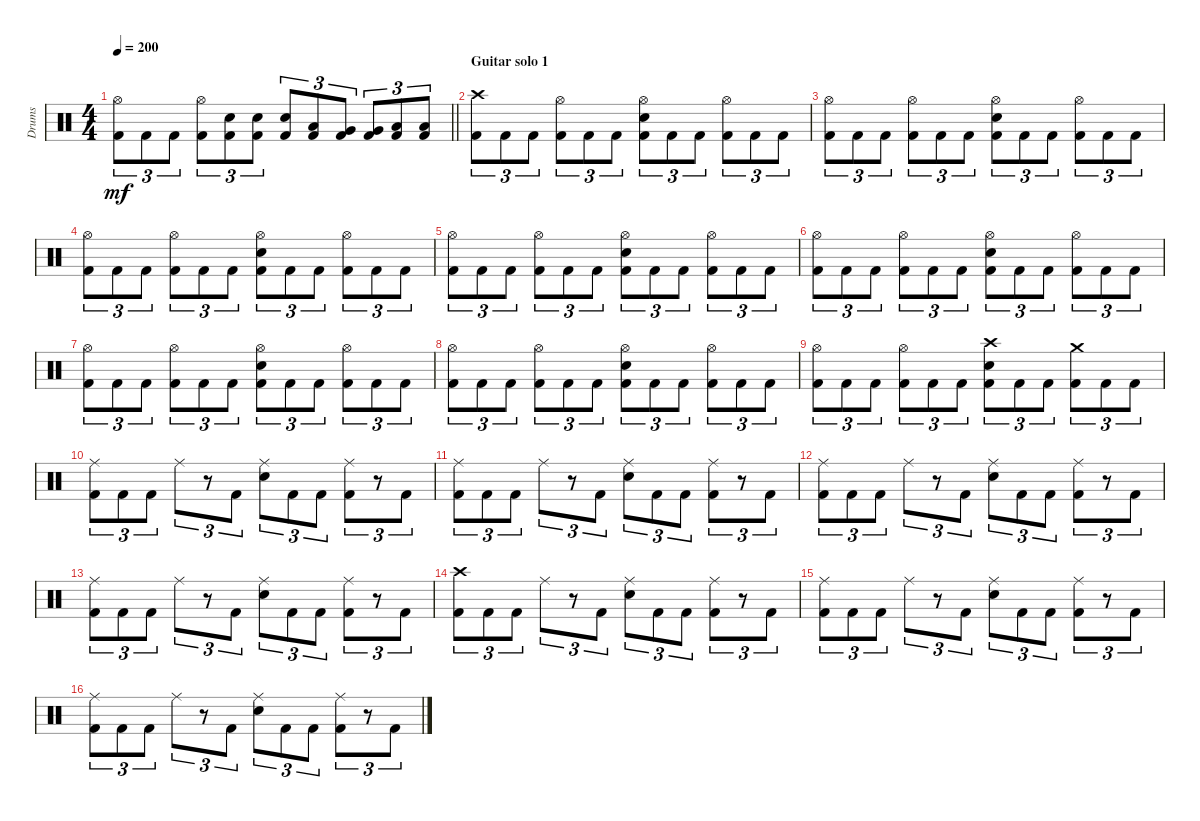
\track ("Drums" "Drums") {instrument percussion}
\staff {score}
\articulation defaults
\ts (4 4)
\tempo 200
\clef neutral
\barLineRight lightlight
\ks c
("Hi-Hat (open)" "Kick (hit) 2").8{tu (3 2) dy mf} "Kick (hit) 2".8{tu (3 2)} "Kick (hit) 2".8{tu (3 2)} ("Hi-Hat (open)" "Kick (hit) 2").8{tu (3 2)} ("Electric Snare (hit)" "Kick (hit) 2").8{tu (3 2)} ("Electric Snare (hit)" "Kick (hit) 2").8{tu (3 2)} ("Electric Snare (hit)" "Kick (hit) 2").8{tu (3 2)} ("Low Tom (hit)" "Kick (hit) 2").8{tu (3 2)} ("Very Low Tom (hit)" "Kick (hit) 2").8{tu (3 2)} ("Very Low Tom (hit)" "Kick (hit) 2").8{tu (3 2)} ("Low Floor Tom (hit)" "Kick (hit) 2").8{tu (3 2)} ("Low Floor Tom (hit)" "Kick (hit) 2").8{tu (3 2)} |
\section ("" "Guitar solo 1")
("Crash high (hit)" "Kick (hit) 2").8{tu (3 2)} "Kick (hit) 2".8{tu (3 2)} "Kick (hit) 2".8{tu (3 2)} ("Hi-Hat (open)" "Kick (hit) 2").8{tu (3 2)} "Kick (hit) 2".8{tu (3 2)} "Kick (hit) 2".8{tu (3 2)} ("Hi-Hat (open)" "Electric Snare (hit)" "Kick (hit) 2").8{tu (3 2)} "Kick (hit) 2".8{tu (3 2)} "Kick (hit) 2".8{tu (3 2)} ("Hi-Hat (open)" "Kick (hit) 2").8{tu (3 2)} "Kick (hit) 2".8{tu (3 2)} "Kick (hit) 2".8{tu (3 2)} |
("Hi-Hat (open)" "Kick (hit) 2").8{tu (3 2)} "Kick (hit) 2".8{tu (3 2)} "Kick (hit) 2".8{tu (3 2)} ("Hi-Hat (open)" "Kick (hit) 2").8{tu (3 2)} "Kick (hit) 2".8{tu (3 2)} "Kick (hit) 2".8{tu (3 2)} ("Hi-Hat (open)" "Electric Snare (hit)" "Kick (hit) 2").8{tu (3 2)} "Kick (hit) 2".8{tu (3 2)} "Kick (hit) 2".8{tu (3 2)} ("Hi-Hat (open)" "Kick (hit) 2").8{tu (3 2)} "Kick (hit) 2".8{tu (3 2)} "Kick (hit) 2".8{tu (3 2)} |
("Hi-Hat (open)" "Kick (hit) 2").8{tu (3 2)} "Kick (hit) 2".8{tu (3 2)} "Kick (hit) 2".8{tu (3 2)} ("Hi-Hat (open)" "Kick (hit) 2").8{tu (3 2)} "Kick (hit) 2".8{tu (3 2)} "Kick (hit) 2".8{tu (3 2)} ("Hi-Hat (open)" "Electric Snare (hit)" "Kick (hit) 2").8{tu (3 2)} "Kick (hit) 2".8{tu (3 2)} "Kick (hit) 2".8{tu (3 2)} ("Hi-Hat (open)" "Kick (hit) 2").8{tu (3 2)} "Kick (hit) 2".8{tu (3 2)} "Kick (hit) 2".8{tu (3 2)} |
("Hi-Hat (open)" "Kick (hit) 2").8{tu (3 2)} "Kick (hit) 2".8{tu (3 2)} "Kick (hit) 2".8{tu (3 2)} ("Hi-Hat (open)" "Kick (hit) 2").8{tu (3 2)} "Kick (hit) 2".8{tu (3 2)} "Kick (hit) 2".8{tu (3 2)} ("Hi-Hat (open)" "Electric Snare (hit)" "Kick (hit) 2").8{tu (3 2)} "Kick (hit) 2".8{tu (3 2)} "Kick (hit) 2".8{tu (3 2)} ("Hi-Hat (open)" "Kick (hit) 2").8{tu (3 2)} "Kick (hit) 2".8{tu (3 2)} "Kick (hit) 2".8{tu (3 2)} |
("Hi-Hat (open)" "Kick (hit) 2").8{tu (3 2)} "Kick (hit) 2".8{tu (3 2)} "Kick (hit) 2".8{tu (3 2)} ("Hi-Hat (open)" "Kick (hit) 2").8{tu (3 2)} "Kick (hit) 2".8{tu (3 2)} "Kick (hit) 2".8{tu (3 2)} ("Hi-Hat (open)" "Electric Snare (hit)" "Kick (hit) 2").8{tu (3 2)} "Kick (hit) 2".8{tu (3 2)} "Kick (hit) 2".8{tu (3 2)} ("Hi-Hat (open)" "Kick (hit) 2").8{tu (3 2)} "Kick (hit) 2".8{tu (3 2)} "Kick (hit) 2".8{tu (3 2)} |
("Hi-Hat (open)" "Kick (hit) 2").8{tu (3 2)} "Kick (hit) 2".8{tu (3 2)} "Kick (hit) 2".8{tu (3 2)} ("Hi-Hat (open)" "Kick (hit) 2").8{tu (3 2)} "Kick (hit) 2".8{tu (3 2)} "Kick (hit) 2".8{tu (3 2)} ("Hi-Hat (open)" "Electric Snare (hit)" "Kick (hit) 2").8{tu (3 2)} "Kick (hit) 2".8{tu (3 2)} "Kick (hit) 2".8{tu (3 2)} ("Hi-Hat (open)" "Kick (hit) 2").8{tu (3 2)} "Kick (hit) 2".8{tu (3 2)} "Kick (hit) 2".8{tu (3 2)} |
("Hi-Hat (open)" "Kick (hit) 2").8{tu (3 2)} "Kick (hit) 2".8{tu (3 2)} "Kick (hit) 2".8{tu (3 2)} ("Hi-Hat (open)" "Kick (hit) 2").8{tu (3 2)} "Kick (hit) 2".8{tu (3 2)} "Kick (hit) 2".8{tu (3 2)} ("Hi-Hat (open)" "Electric Snare (hit)" "Kick (hit) 2").8{tu (3 2)} "Kick (hit) 2".8{tu (3 2)} "Kick (hit) 2".8{tu (3 2)} ("Hi-Hat (open)" "Kick (hit) 2").8{tu (3 2)} "Kick (hit) 2".8{tu (3 2)} "Kick (hit) 2".8{tu (3 2)} |
("Hi-Hat (open)" "Kick (hit) 2").8{tu (3 2)} "Kick (hit) 2".8{tu (3 2)} "Kick (hit) 2".8{tu (3 2)} ("Hi-Hat (open)" "Kick (hit) 2").8{tu (3 2)} "Kick (hit) 2".8{tu (3 2)} "Kick (hit) 2".8{tu (3 2)} ("Crash high (hit)" "Electric Snare (hit)" "Kick (hit) 2").8{tu (3 2)} "Kick (hit) 2".8{tu (3 2)} "Kick (hit) 2".8{tu (3 2)} ("Crash medium (hit)" "Kick (hit) 2").8{tu (3 2)} "Kick (hit) 2".8{tu (3 2)} "Kick (hit) 2".8{tu (3 2)} |
("Ride (middle)" "Kick (hit) 2").8{tu (3 2)} "Kick (hit) 2".8{tu (3 2)} "Kick (hit) 2".8{tu (3 2)} "Ride (middle)".8{tu (3 2)} r.8{tu (3 2)} "Kick (hit) 2".8{tu (3 2)} ("Ride (middle)" "Electric Snare (hit)").8{tu (3 2)} "Kick (hit) 2".8{tu (3 2)} "Kick (hit) 2".8{tu (3 2)} ("Ride (middle)" "Kick (hit) 2").8{tu (3 2)} r.8{tu (3 2)} "Kick (hit) 2".8{tu (3 2)} |
("Ride (middle)" "Kick (hit) 2").8{tu (3 2)} "Kick (hit) 2".8{tu (3 2)} "Kick (hit) 2".8{tu (3 2)} "Ride (middle)".8{tu (3 2)} r.8{tu (3 2)} "Kick (hit) 2".8{tu (3 2)} ("Ride (middle)" "Electric Snare (hit)").8{tu (3 2)} "Kick (hit) 2".8{tu (3 2)} "Kick (hit) 2".8{tu (3 2)} ("Ride (middle)" "Kick (hit) 2").8{tu (3 2)} r.8{tu (3 2)} "Kick (hit) 2".8{tu (3 2)} |
("Ride (middle)" "Kick (hit) 2").8{tu (3 2)} "Kick (hit) 2".8{tu (3 2)} "Kick (hit) 2".8{tu (3 2)} "Ride (middle)".8{tu (3 2)} r.8{tu (3 2)} "Kick (hit) 2".8{tu (3 2)} ("Ride (middle)" "Electric Snare (hit)").8{tu (3 2)} "Kick (hit) 2".8{tu (3 2)} "Kick (hit) 2".8{tu (3 2)} ("Ride (middle)" "Kick (hit) 2").8{tu (3 2)} r.8{tu (3 2)} "Kick (hit) 2".8{tu (3 2)} |
("Ride (middle)" "Kick (hit) 2").8{tu (3 2)} "Kick (hit) 2".8{tu (3 2)} "Kick (hit) 2".8{tu (3 2)} "Ride (middle)".8{tu (3 2)} r.8{tu (3 2)} "Kick (hit) 2".8{tu (3 2)} ("Ride (middle)" "Electric Snare (hit)").8{tu (3 2)} "Kick (hit) 2".8{tu (3 2)} "Kick (hit) 2".8{tu (3 2)} ("Ride (middle)" "Kick (hit) 2").8{tu (3 2)} r.8{tu (3 2)} "Kick (hit) 2".8{tu (3 2)} |
("Crash high (hit)" "Kick (hit) 2").8{tu (3 2)} "Kick (hit) 2".8{tu (3 2)} "Kick (hit) 2".8{tu (3 2)} "Ride (middle)".8{tu (3 2)} r.8{tu (3 2)} "Kick (hit) 2".8{tu (3 2)} ("Ride (middle)" "Electric Snare (hit)").8{tu (3 2)} "Kick (hit) 2".8{tu (3 2)} "Kick (hit) 2".8{tu (3 2)} ("Ride (middle)" "Kick (hit) 2").8{tu (3 2)} r.8{tu (3 2)} "Kick (hit) 2".8{tu (3 2)} |
("Ride (middle)" "Kick (hit) 2").8{tu (3 2)} "Kick (hit) 2".8{tu (3 2)} "Kick (hit) 2".8{tu (3 2)} "Ride (middle)".8{tu (3 2)} r.8{tu (3 2)} "Kick (hit) 2".8{tu (3 2)} ("Ride (middle)" "Electric Snare (hit)").8{tu (3 2)} "Kick (hit) 2".8{tu (3 2)} "Kick (hit) 2".8{tu (3 2)} ("Ride (middle)" "Kick (hit) 2").8{tu (3 2)} r.8{tu (3 2)} "Kick (hit) 2".8{tu (3 2)} |
("Ride (middle)" "Kick (hit) 2").8{tu (3 2)} "Kick (hit) 2".8{tu (3 2)} "Kick (hit) 2".8{tu (3 2)} "Ride (middle)".8{tu (3 2)} r.8{tu (3 2)} "Kick (hit) 2".8{tu (3 2)} ("Ride (middle)" "Electric Snare (hit)").8{tu (3 2)} "Kick (hit) 2".8{tu (3 2)} "Kick (hit) 2".8{tu (3 2)} ("Ride (middle)" "Kick (hit) 2").8{tu (3 2)} r.8{tu (3 2)} "Kick (hit) 2".8{tu (3 2)}
